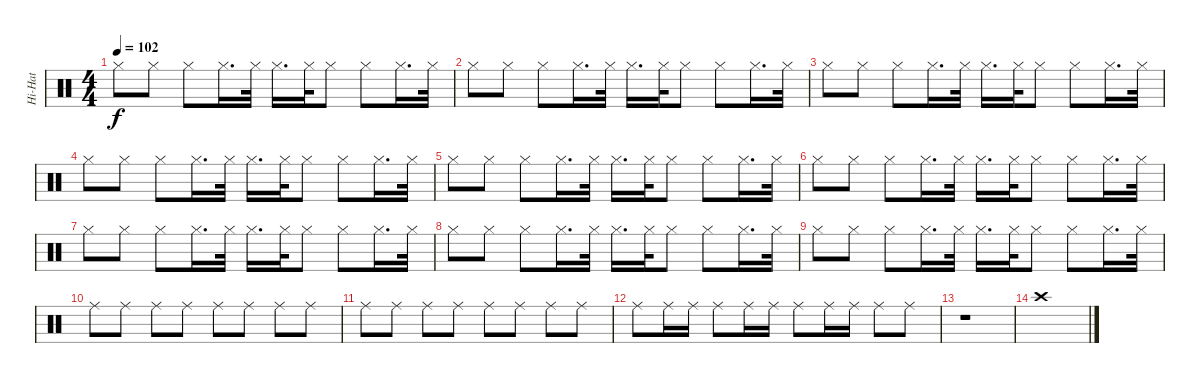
\track ("Hi-Hat" "Hi-Hat") {instrument percussion}
\staff {score}
\articulation defaults
\ts (4 4)
\tempo 102
\clef neutral
\ks c "Hi-Hat (closed)".8{dy f} "Hi-Hat (closed)".8 "Hi-Hat (closed)".8 "Hi-Hat (closed)".16{d} "Hi-Hat (closed)".32 "Hi-Hat (closed)".16{d} "Hi-Hat (closed)".32 "Hi-Hat (closed)".8 "Hi-Hat (closed)".8 "Hi-Hat (closed)".16{d} "Hi-Hat (closed)".32
|
"Hi-Hat (closed)".8 "Hi-Hat (closed)".8 "Hi-Hat (closed)".8 "Hi-Hat (closed)".16{d} "Hi-Hat (closed)".32 "Hi-Hat (closed)".16{d} "Hi-Hat (closed)".32 "Hi-Hat (closed)".8 "Hi-Hat (closed)".8 "Hi-Hat (closed)".16{d} "Hi-Hat (closed)".32 |
"Hi-Hat (closed)".8 "Hi-Hat (closed)".8 "Hi-Hat (closed)".8 "Hi-Hat (closed)".16{d} "Hi-Hat (closed)".32 "Hi-Hat (closed)".16{d} "Hi-Hat (closed)".32 "Hi-Hat (closed)".8 "Hi-Hat (closed)".8 "Hi-Hat (closed)".16{d} "Hi-Hat (closed)".32 |
"Hi-Hat (closed)".8 "Hi-Hat (closed)".8 "Hi-Hat (closed)".8 "Hi-Hat (closed)".16{d} "Hi-Hat (closed)".32 "Hi-Hat (closed)".16{d} "Hi-Hat (closed)".32 "Hi-Hat (closed)".8 "Hi-Hat (closed)".8 "Hi-Hat (closed)".16{d} "Hi-Hat (closed)".32 |
"Hi-Hat (closed)".8 "Hi-Hat (closed)".8 "Hi-Hat (closed)".8 "Hi-Hat (closed)".16{d} "Hi-Hat (closed)".32 "Hi-Hat (closed)".16{d} "Hi-Hat (closed)".32 "Hi-Hat (closed)".8 "Hi-Hat (closed)".8 "Hi-Hat (closed)".16{d} "Hi-Hat (closed)".32 |
"Hi-Hat (closed)".8 "Hi-Hat (closed)".8 "Hi-Hat (closed)".8 "Hi-Hat (closed)".16{d} "Hi-Hat (closed)".32 "Hi-Hat (closed)".16{d} "Hi-Hat (closed)".32 "Hi-Hat (closed)".8 "Hi-Hat (closed)".8 "Hi-Hat (closed)".16{d} "Hi-Hat (closed)".32 |
"Hi-Hat (closed)".8 "Hi-Hat (closed)".8 "Hi-Hat (closed)".8 "Hi-Hat (closed)".16{d} "Hi-Hat (closed)".32 "Hi-Hat (closed)".16{d} "Hi-Hat (closed)".32 "Hi-Hat (closed)".8 "Hi-Hat (closed)".8 "Hi-Hat (closed)".16{d} "Hi-Hat (closed)".32 |
"Hi-Hat (closed)".8 "Hi-Hat (closed)".8 "Hi-Hat (closed)".8 "Hi-Hat (closed)".16{d} "Hi-Hat (closed)".32 "Hi-Hat (closed)".16{d} "Hi-Hat (closed)".32 "Hi-Hat (closed)".8 "Hi-Hat (closed)".8 "Hi-Hat (closed)".16{d} "Hi-Hat (closed)".32 |
"Hi-Hat (closed)".8 "Hi-Hat (closed)".8 "Hi-Hat (closed)".8 "Hi-Hat (closed)".16{d} "Hi-Hat (closed)".32 "Hi-Hat (closed)".16{d} "Hi-Hat (closed)".32 "Hi-Hat (closed)".8 "Hi-Hat (closed)".8 "Hi-Hat (closed)".16{d} "Hi-Hat (closed)".32 |
"Ride (middle)".8 "Ride (middle)".8 "Ride (middle)".8 "Ride (middle)".8 "Ride (middle)".8 "Ride (middle)".8 "Ride (middle)".8 "Ride (middle)".8 |
"Ride (middle)".8 "Ride (middle)".8 "Ride (middle)".8 "Ride (middle)".8 "Ride (middle)".8 "Ride (middle)".8 "Ride (middle)".8 "Ride (middle)".8 |
"Ride (middle)".8 "Ride (middle)".16 "Ride (middle)".16 "Ride (middle)".8 "Ride (middle)".16 "Ride (middle)".16 "Ride (middle)".8 "Ride (middle)".16 "Ride (middle)".16 "Ride (middle)".8 "Ride (middle)".8 |
r.1 |
"Crash high (hit)".1
